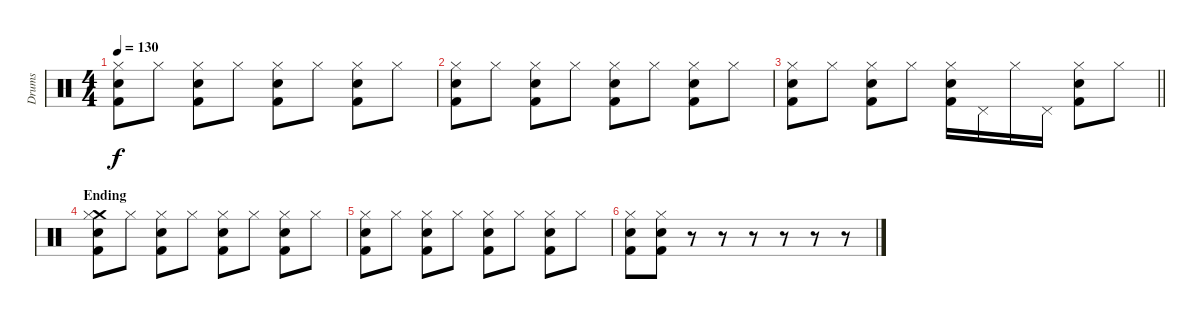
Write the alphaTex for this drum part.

\track ("Drums" "Drums") {instrument percussion}
\staff {score}
\articulation defaults
\ts (4 4)
\tempo 130
\clef neutral
\ks c
("Hi-Hat (closed)" "Electric Snare (hit)" "Kick (hit) 2").8{dy f} "Hi-Hat (closed)".8 ("Hi-Hat (closed)" "Electric Snare (hit)" "Kick (hit) 2").8 "Hi-Hat (closed)".8 ("Hi-Hat (closed)" "Electric Snare (hit)" "Kick (hit) 2").8 "Hi-Hat (closed)".8 ("Hi-Hat (closed)" "Electric Snare (hit)" "Kick (hit) 2").8 "Hi-Hat (closed)".8 |
("Hi-Hat (closed)" "Electric Snare (hit)" "Kick (hit) 2").8 "Hi-Hat (closed)".8 ("Hi-Hat (closed)" "Electric Snare (hit)" "Kick (hit) 2").8 "Hi-Hat (closed)".8 ("Hi-Hat (closed)" "Electric Snare (hit)" "Kick (hit) 2").8 "Hi-Hat (closed)".8 ("Hi-Hat (closed)" "Electric Snare (hit)" "Kick (hit) 2").8 "Hi-Hat (closed)".8 |
\barLineRight lightlight
("Hi-Hat (closed)" "Electric Snare (hit)" "Kick (hit) 2").8 "Hi-Hat (closed)".8 ("Hi-Hat (closed)" "Electric Snare (hit)" "Kick (hit) 2").8 "Hi-Hat (closed)".8 ("Hi-Hat (closed)" "Electric Snare (hit)" "Kick (hit) 2").16 "Pedal Hi-Hat (hit)".16 "Hi-Hat (closed)".16 "Pedal Hi-Hat (hit)".16 ("Hi-Hat (closed)" "Electric Snare (hit)" "Kick (hit) 2").8 "Hi-Hat (closed)".8 |
\section ("" "Ending")
("Crash medium (hit)" "Hi-Hat (closed)" "Electric Snare (hit)" "Kick (hit) 2").8 "Hi-Hat (closed)".8 ("Hi-Hat (closed)" "Electric Snare (hit)" "Kick (hit) 2").8 "Hi-Hat (closed)".8 ("Hi-Hat (closed)" "Electric Snare (hit)" "Kick (hit) 2").8 "Hi-Hat (closed)".8 ("Hi-Hat (closed)" "Electric Snare (hit)" "Kick (hit) 2").8 "Hi-Hat (closed)".8 |
("Hi-Hat (closed)" "Electric Snare (hit)" "Kick (hit) 2").8 "Hi-Hat (closed)".8 ("Hi-Hat (closed)" "Electric Snare (hit)" "Kick (hit) 2").8 "Hi-Hat (closed)".8 ("Hi-Hat (closed)" "Electric Snare (hit)" "Kick (hit) 2").8 "Hi-Hat (closed)".8 ("Hi-Hat (closed)" "Electric Snare (hit)" "Kick (hit) 2").8 "Hi-Hat (closed)".8 |
("Hi-Hat (closed)" "Electric Snare (hit)" "Kick (hit) 2").8 ("Hi-Hat (closed)" "Electric Snare (hit)" "Kick (hit) 2").8 r.8 r.8 r.8 r.8 r.8 r.8
